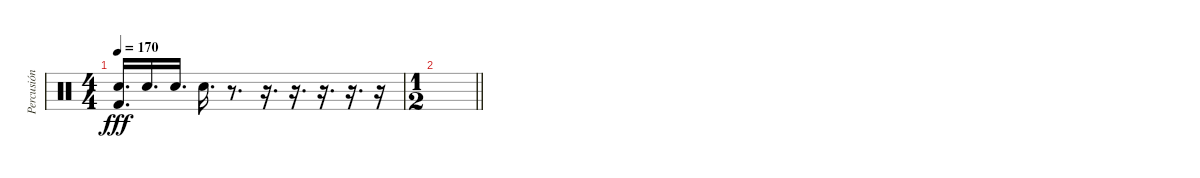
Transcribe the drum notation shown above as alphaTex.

\track ("Percusión" "Percusión") {instrument percussion}
\staff {score}
\articulation defaults
\ts (4 4)
\tempo 170
\clef neutral
\ks c
("Electric Snare (hit)" "Kick (hit) 2").16{d dy fff} "Electric Snare (hit)".16{d} "Electric Snare (hit)".16{d} "Electric Snare (hit)".16{d} r.8{d} r.16{d} r.16{d} r.16{d} r.16{d} r.16 |
\ts (1 2)
\barLineRight lightlight
